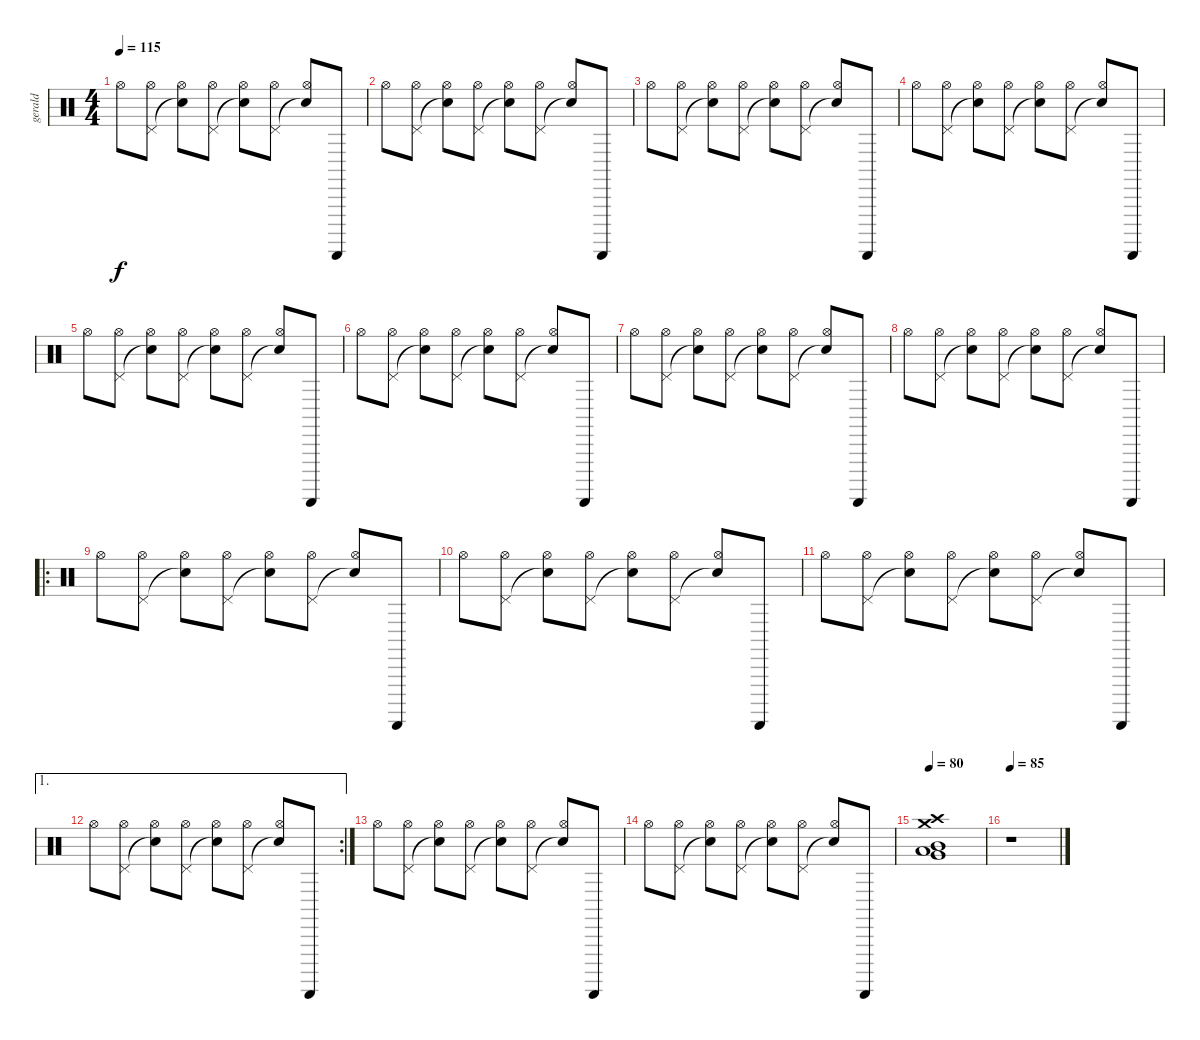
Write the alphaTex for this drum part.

\track ("gerald" "gerald") {instrument percussion}
\staff {score}
\articulation defaults
\ts (4 4)
\tempo 115
\clef neutral
\ks c "Hi-Hat (open)".8{dy f}
("Pedal Hi-Hat (hit)" "Hi-Hat (open)").8 ("Snare (hit)"{t} "Hi-Hat (open)").8 ("Pedal Hi-Hat (hit)" "Hi-Hat (open)").8 ("Snare (hit)"{t} "Hi-Hat (open)").8 ("Pedal Hi-Hat (hit)" "Hi-Hat (open)").8 ("Snare (hit)"{t} "Hi-Hat (open)").8 "Guiro (scrap-return)".8 |
"Hi-Hat (open)".8 ("Pedal Hi-Hat (hit)" "Hi-Hat (open)").8 ("Snare (hit)"{t} "Hi-Hat (open)").8 ("Pedal Hi-Hat (hit)" "Hi-Hat (open)").8 ("Snare (hit)"{t} "Hi-Hat (open)").8 ("Pedal Hi-Hat (hit)" "Hi-Hat (open)").8 ("Snare (hit)"{t} "Hi-Hat (open)").8 "Guiro (scrap-return)".8 |
"Hi-Hat (open)".8 ("Pedal Hi-Hat (hit)" "Hi-Hat (open)").8 ("Snare (hit)"{t} "Hi-Hat (open)").8 ("Pedal Hi-Hat (hit)" "Hi-Hat (open)").8 ("Snare (hit)"{t} "Hi-Hat (open)").8 ("Pedal Hi-Hat (hit)" "Hi-Hat (open)").8 ("Snare (hit)"{t} "Hi-Hat (open)").8 "Guiro (scrap-return)".8 |
"Hi-Hat (open)".8 ("Pedal Hi-Hat (hit)" "Hi-Hat (open)").8 ("Snare (hit)"{t} "Hi-Hat (open)").8 ("Pedal Hi-Hat (hit)" "Hi-Hat (open)").8 ("Snare (hit)"{t} "Hi-Hat (open)").8 ("Pedal Hi-Hat (hit)" "Hi-Hat (open)").8 ("Snare (hit)"{t} "Hi-Hat (open)").8 "Guiro (scrap-return)".8 |
"Hi-Hat (open)".8 ("Pedal Hi-Hat (hit)" "Hi-Hat (open)").8 ("Snare (hit)"{t} "Hi-Hat (open)").8 ("Pedal Hi-Hat (hit)" "Hi-Hat (open)").8 ("Snare (hit)"{t} "Hi-Hat (open)").8 ("Pedal Hi-Hat (hit)" "Hi-Hat (open)").8 ("Snare (hit)"{t} "Hi-Hat (open)").8 "Guiro (scrap-return)".8 |
"Hi-Hat (open)".8 ("Pedal Hi-Hat (hit)" "Hi-Hat (open)").8 ("Snare (hit)"{t} "Hi-Hat (open)").8 ("Pedal Hi-Hat (hit)" "Hi-Hat (open)").8 ("Snare (hit)"{t} "Hi-Hat (open)").8 ("Pedal Hi-Hat (hit)" "Hi-Hat (open)").8 ("Snare (hit)"{t} "Hi-Hat (open)").8 "Guiro (scrap-return)".8 |
"Hi-Hat (open)".8 ("Pedal Hi-Hat (hit)" "Hi-Hat (open)").8 ("Snare (hit)"{t} "Hi-Hat (open)").8 ("Pedal Hi-Hat (hit)" "Hi-Hat (open)").8 ("Snare (hit)"{t} "Hi-Hat (open)").8 ("Pedal Hi-Hat (hit)" "Hi-Hat (open)").8 ("Snare (hit)"{t} "Hi-Hat (open)").8 "Guiro (scrap-return)".8 |
"Hi-Hat (open)".8 ("Pedal Hi-Hat (hit)" "Hi-Hat (open)").8 ("Snare (hit)"{t} "Hi-Hat (open)").8 ("Pedal Hi-Hat (hit)" "Hi-Hat (open)").8 ("Snare (hit)"{t} "Hi-Hat (open)").8 ("Pedal Hi-Hat (hit)" "Hi-Hat (open)").8 ("Snare (hit)"{t} "Hi-Hat (open)").8 "Guiro (scrap-return)".8 |
\ro "Hi-Hat (open)".8
("Pedal Hi-Hat (hit)" "Hi-Hat (open)").8 ("Snare (hit)"{t} "Hi-Hat (open)").8 ("Pedal Hi-Hat (hit)" "Hi-Hat (open)").8 ("Snare (hit)"{t} "Hi-Hat (open)").8 ("Pedal Hi-Hat (hit)" "Hi-Hat (open)").8 ("Snare (hit)"{t} "Hi-Hat (open)").8 "Guiro (scrap-return)".8 |
"Hi-Hat (open)".8 ("Pedal Hi-Hat (hit)" "Hi-Hat (open)").8 ("Snare (hit)"{t} "Hi-Hat (open)").8 ("Pedal Hi-Hat (hit)" "Hi-Hat (open)").8 ("Snare (hit)"{t} "Hi-Hat (open)").8 ("Pedal Hi-Hat (hit)" "Hi-Hat (open)").8 ("Snare (hit)"{t} "Hi-Hat (open)").8 "Guiro (scrap-return)".8 |
"Hi-Hat (open)".8 ("Pedal Hi-Hat (hit)" "Hi-Hat (open)").8 ("Snare (hit)"{t} "Hi-Hat (open)").8 ("Pedal Hi-Hat (hit)" "Hi-Hat (open)").8 ("Snare (hit)"{t} "Hi-Hat (open)").8 ("Pedal Hi-Hat (hit)" "Hi-Hat (open)").8 ("Snare (hit)"{t} "Hi-Hat (open)").8 "Guiro (scrap-return)".8 |
\ae 1
\rc 2 "Hi-Hat (open)".8
("Pedal Hi-Hat (hit)" "Hi-Hat (open)").8 ("Snare (hit)"{t} "Hi-Hat (open)").8 ("Pedal Hi-Hat (hit)" "Hi-Hat (open)").8 ("Snare (hit)"{t} "Hi-Hat (open)").8 ("Pedal Hi-Hat (hit)" "Hi-Hat (open)").8 ("Snare (hit)"{t} "Hi-Hat (open)").8 "Guiro (scrap-return)".8 |
"Hi-Hat (open)".8 ("Pedal Hi-Hat (hit)" "Hi-Hat (open)").8 ("Snare (hit)"{t} "Hi-Hat (open)").8 ("Pedal Hi-Hat (hit)" "Hi-Hat (open)").8 ("Snare (hit)"{t} "Hi-Hat (open)").8 ("Pedal Hi-Hat (hit)" "Hi-Hat (open)").8 ("Snare (hit)"{t} "Hi-Hat (open)").8 "Guiro (scrap-return)".8 |
"Hi-Hat (open)".8 ("Pedal Hi-Hat (hit)" "Hi-Hat (open)").8 ("Snare (hit)"{t} "Hi-Hat (open)").8 ("Pedal Hi-Hat (hit)" "Hi-Hat (open)").8 ("Snare (hit)"{t} "Hi-Hat (open)").8 ("Pedal Hi-Hat (hit)" "Hi-Hat (open)").8 ("Snare (hit)"{t} "Hi-Hat (open)").8 "Guiro (scrap-return)".8 |
\tempo 116
\tempo 80
("Mid Tom (hit)" "Crash high (hit)" "Very Low Tom (hit)" "Low Floor Tom (hit)" "Crash medium (hit)").1 |
\tempo 85
r.1
